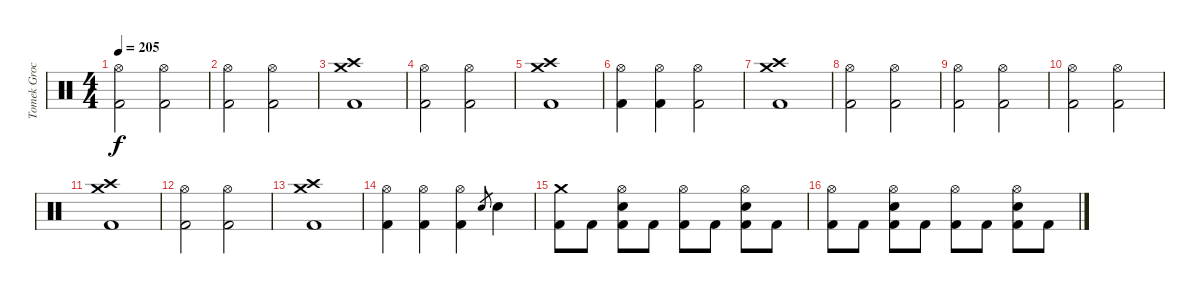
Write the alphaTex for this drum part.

\track ("Tomek Grochowski" "Tomek Groc") {instrument percussion}
\staff {score}
\articulation defaults
\ts (4 4)
\tempo 205
\clef neutral
\ks c
("Hi-Hat (open)" "Kick (hit) 2").2{dy f} ("Hi-Hat (open)" "Kick (hit) 2").2 |
("Hi-Hat (open)" "Kick (hit) 2").2 ("Hi-Hat (open)" "Kick (hit) 2").2 |
("Crash high (hit)" "Crash medium (hit)" "Kick (hit) 2").1 |
("Hi-Hat (open)" "Kick (hit) 2").2 ("Hi-Hat (open)" "Kick (hit) 2").2 |
("Crash high (hit)" "Crash medium (hit)" "Kick (hit) 2").1 |
("Hi-Hat (open)" "Kick (hit) 2").4 ("Hi-Hat (open)" "Kick (hit) 2").4 ("Hi-Hat (open)" "Kick (hit) 2").2 |
("Crash high (hit)" "Crash medium (hit)" "Kick (hit) 2").1 |
("Hi-Hat (open)" "Kick (hit) 2").2 ("Hi-Hat (open)" "Kick (hit) 2").2 |
("Hi-Hat (open)" "Kick (hit) 2").2 ("Hi-Hat (open)" "Kick (hit) 2").2 |
("Hi-Hat (open)" "Kick (hit) 2").2 ("Hi-Hat (open)" "Kick (hit) 2").2 |
("Crash high (hit)" "Crash medium (hit)" "Kick (hit) 2").1 |
("Hi-Hat (open)" "Kick (hit) 2").2 ("Hi-Hat (open)" "Kick (hit) 2").2 |
("Crash medium (hit)" "Crash high (hit)" "Kick (hit) 2").1 |
("Hi-Hat (open)" "Kick (hit) 2").4 ("Hi-Hat (open)" "Kick (hit) 2").4 ("Hi-Hat (open)" "Kick (hit) 2").4 "Electric Snare (hit)"{h}.8{gr} "Electric Snare (hit)".4 |
("Crash medium (hit)" "Kick (hit) 2").8 "Kick (hit) 2".8 ("Hi-Hat (open)" "Electric Snare (hit)" "Kick (hit) 2").8 "Kick (hit) 2".8 ("Hi-Hat (open)" "Kick (hit) 2").8 "Kick (hit) 2".8 ("Hi-Hat (open)" "Electric Snare (hit)" "Kick (hit) 2").8 "Kick (hit) 2".8 |
("Hi-Hat (open)" "Kick (hit) 2").8 "Kick (hit) 2".8 ("Hi-Hat (open)" "Electric Snare (hit)" "Kick (hit) 2").8 "Kick (hit) 2".8 ("Hi-Hat (open)" "Kick (hit) 2").8 "Kick (hit) 2".8 ("Hi-Hat (open)" "Electric Snare (hit)" "Kick (hit) 2").8 "Kick (hit) 2".8
